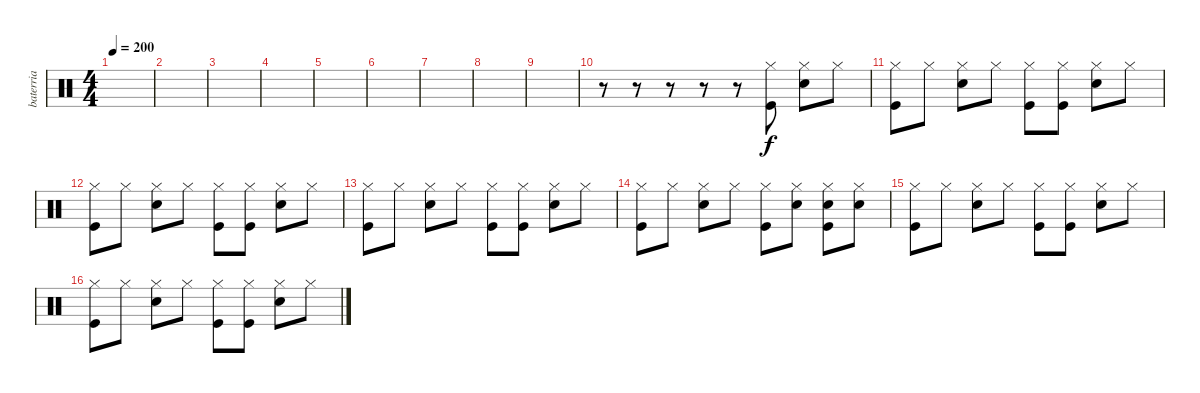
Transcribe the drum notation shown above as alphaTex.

\track ("baterria" "baterria") {instrument percussion}
\staff {score}
\articulation defaults
\ts (4 4)
\tempo 200
\clef neutral
\ks c
|
|
|
|
|
|
|
|
|
r.8 r.8 r.8 r.8 r.8 ("Hi-Hat (closed)" "Kick (hit)").8 ("Hi-Hat (closed)" "Electric Snare (hit)").8 "Hi-Hat (closed)".8 |
("Hi-Hat (closed)" "Kick (hit)").8 "Hi-Hat (closed)".8 ("Hi-Hat (closed)" "Electric Snare (hit)").8 "Hi-Hat (closed)".8 ("Hi-Hat (closed)" "Kick (hit)").8 ("Hi-Hat (closed)" "Kick (hit)").8 ("Hi-Hat (closed)" "Electric Snare (hit)").8 "Hi-Hat (closed)".8 |
("Hi-Hat (closed)" "Kick (hit)").8 "Hi-Hat (closed)".8 ("Hi-Hat (closed)" "Electric Snare (hit)").8 "Hi-Hat (closed)".8 ("Hi-Hat (closed)" "Kick (hit)").8 ("Hi-Hat (closed)" "Kick (hit)").8 ("Hi-Hat (closed)" "Electric Snare (hit)").8 "Hi-Hat (closed)".8 |
("Hi-Hat (closed)" "Kick (hit)").8 "Hi-Hat (closed)".8 ("Hi-Hat (closed)" "Electric Snare (hit)").8 "Hi-Hat (closed)".8 ("Hi-Hat (closed)" "Kick (hit)").8 ("Hi-Hat (closed)" "Kick (hit)").8 ("Hi-Hat (closed)" "Electric Snare (hit)").8 "Hi-Hat (closed)".8 |
("Hi-Hat (closed)" "Kick (hit)").8 "Hi-Hat (closed)".8 ("Hi-Hat (closed)" "Electric Snare (hit)").8 "Hi-Hat (closed)".8 ("Hi-Hat (closed)" "Kick (hit)").8 ("Hi-Hat (closed)" "Electric Snare (hit)").8 ("Hi-Hat (closed)" "Electric Snare (hit)" "Kick (hit)").8 ("Hi-Hat (closed)" "Electric Snare (hit)").8 |
("Hi-Hat (closed)" "Kick (hit)").8 "Hi-Hat (closed)".8 ("Hi-Hat (closed)" "Electric Snare (hit)").8 "Hi-Hat (closed)".8 ("Hi-Hat (closed)" "Kick (hit)").8 ("Hi-Hat (closed)" "Kick (hit)").8 ("Hi-Hat (closed)" "Electric Snare (hit)").8 "Hi-Hat (closed)".8 |
("Hi-Hat (closed)" "Kick (hit)").8 "Hi-Hat (closed)".8 ("Hi-Hat (closed)" "Electric Snare (hit)").8 "Hi-Hat (closed)".8 ("Hi-Hat (closed)" "Kick (hit)").8 ("Hi-Hat (closed)" "Kick (hit)").8 ("Hi-Hat (closed)" "Electric Snare (hit)").8 "Hi-Hat (closed)".8
